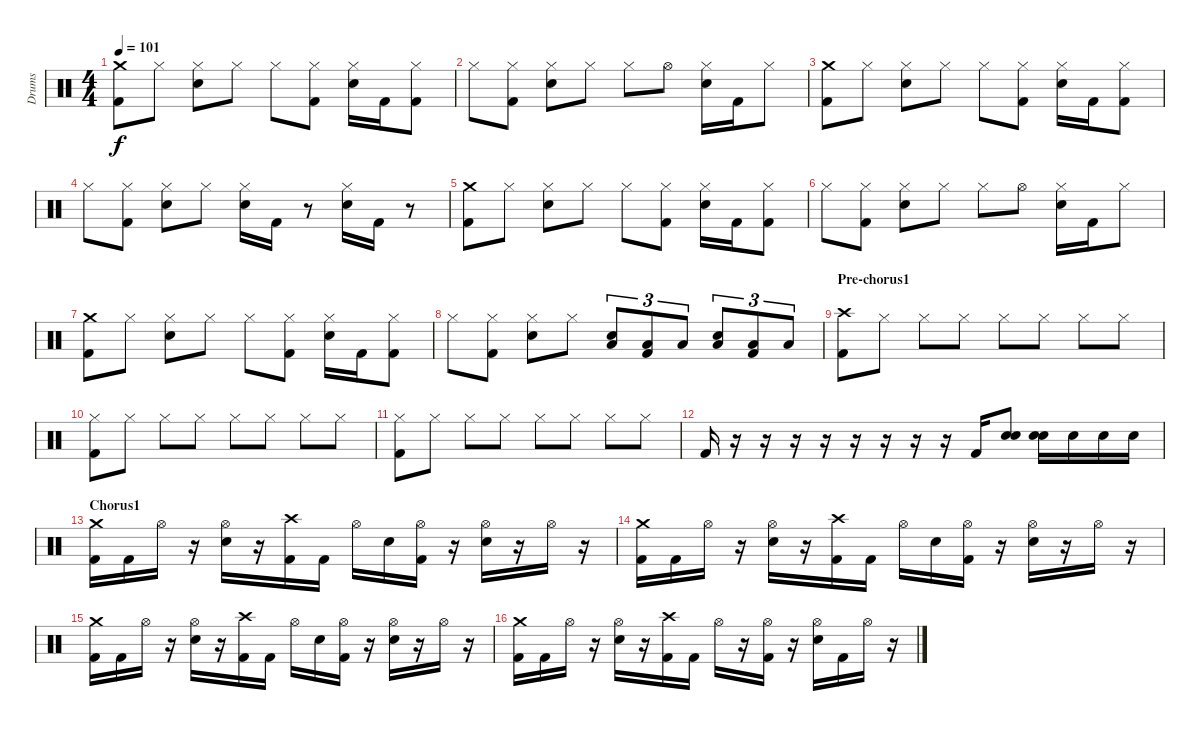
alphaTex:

\track ("Drums" "Drums") {instrument percussion}
\staff {score}
\articulation defaults
\ts (4 4)
\tempo 101
\clef neutral
\ks c
("Crash medium (hit)" "Kick (hit) 2").8{dy f} "Hi-Hat (closed)".8 ("Hi-Hat (closed)" "Electric Snare (hit)").8 "Hi-Hat (closed)".8 "Hi-Hat (closed)".8 ("Hi-Hat (closed)" "Kick (hit) 2").8 ("Hi-Hat (closed)" "Electric Snare (hit)").16 "Kick (hit) 2".16 ("Hi-Hat (closed)" "Kick (hit) 2").8 |
"Hi-Hat (closed)".8 ("Hi-Hat (closed)" "Kick (hit) 2").8 ("Hi-Hat (closed)" "Electric Snare (hit)").8 "Hi-Hat (closed)".8 "Hi-Hat (closed)".8 "Hi-Hat (open)".8 ("Hi-Hat (closed)" "Electric Snare (hit)").16 "Kick (hit) 2".16 "Hi-Hat (closed)".8 |
("Crash medium (hit)" "Kick (hit) 2").8 "Hi-Hat (closed)".8 ("Hi-Hat (closed)" "Electric Snare (hit)").8 "Hi-Hat (closed)".8 "Hi-Hat (closed)".8 ("Hi-Hat (closed)" "Kick (hit) 2").8 ("Hi-Hat (closed)" "Electric Snare (hit)").16 "Kick (hit) 2".16 ("Hi-Hat (closed)" "Kick (hit) 2").8 |
"Hi-Hat (closed)".8 ("Hi-Hat (closed)" "Kick (hit) 2").8 ("Hi-Hat (closed)" "Electric Snare (hit)").8 "Hi-Hat (closed)".8 ("Hi-Hat (closed)" "Electric Snare (hit)").16 "Kick (hit) 2".16 r.8 ("Hi-Hat (closed)" "Electric Snare (hit)").16 "Kick (hit) 2".16 r.8 |
("Crash medium (hit)" "Kick (hit) 2").8 "Hi-Hat (closed)".8 ("Hi-Hat (closed)" "Electric Snare (hit)").8 "Hi-Hat (closed)".8 "Hi-Hat (closed)".8 ("Hi-Hat (closed)" "Kick (hit) 2").8 ("Hi-Hat (closed)" "Electric Snare (hit)").16 "Kick (hit) 2".16 ("Hi-Hat (closed)" "Kick (hit) 2").8 |
"Hi-Hat (closed)".8 ("Hi-Hat (closed)" "Kick (hit) 2").8 ("Hi-Hat (closed)" "Electric Snare (hit)").8 "Hi-Hat (closed)".8 "Hi-Hat (closed)".8 "Hi-Hat (open)".8 ("Hi-Hat (closed)" "Electric Snare (hit)").16 "Kick (hit) 2".16 "Hi-Hat (closed)".8 |
("Crash medium (hit)" "Kick (hit) 2").8 "Hi-Hat (closed)".8 ("Hi-Hat (closed)" "Electric Snare (hit)").8 "Hi-Hat (closed)".8 "Hi-Hat (closed)".8 ("Hi-Hat (closed)" "Kick (hit) 2").8 ("Hi-Hat (closed)" "Electric Snare (hit)").16 "Kick (hit) 2".16 ("Hi-Hat (closed)" "Kick (hit) 2").8 |
"Hi-Hat (closed)".8 ("Hi-Hat (closed)" "Kick (hit) 2").8 ("Hi-Hat (closed)" "Electric Snare (hit)").8 "Hi-Hat (closed)".8 ("Low Tom (hit)" "Electric Snare (hit)").8{tu (3 2)} ("Low Tom (hit)" "Kick (hit) 2").8{tu (3 2)} "Low Tom (hit)".8{tu (3 2)} ("Low Tom (hit)" "Electric Snare (hit)").8{tu (3 2)} ("Low Tom (hit)" "Kick (hit) 2").8{tu (3 2)} "Low Tom (hit)".8{tu (3 2)} |
\section ("" "Pre-chorus1")
("Crash high (hit)" "Kick (hit) 2").8 "Hi-Hat (closed)".8 "Hi-Hat (closed)".8 "Hi-Hat (closed)".8 "Hi-Hat (closed)".8 "Hi-Hat (closed)".8 "Hi-Hat (closed)".8 "Hi-Hat (closed)".8 |
("Hi-Hat (closed)" "Kick (hit) 2").8 "Hi-Hat (closed)".8 "Hi-Hat (closed)".8 "Hi-Hat (closed)".8 "Hi-Hat (closed)".8 "Hi-Hat (closed)".8 "Hi-Hat (closed)".8 "Hi-Hat (closed)".8 |
("Hi-Hat (closed)" "Kick (hit) 2").8 "Hi-Hat (closed)".8 "Hi-Hat (closed)".8 "Hi-Hat (closed)".8 "Hi-Hat (closed)".8 "Hi-Hat (closed)".8 "Hi-Hat (closed)".8 "Hi-Hat (closed)".8 |
"Kick (hit) 2".16 r.16 r.16 r.16 r.16 r.16 r.16 r.16 r.16 "Kick (hit) 2".16 ("Electric Snare (hit)" "Electric Snare (hit)").8 ("Electric Snare (hit)" "Electric Snare (hit)").16 "Electric Snare (hit)".16 "Electric Snare (hit)".16 "Electric Snare (hit)".16 |
\section ("" "Chorus1")
("Crash medium (hit)" "Kick (hit) 2").16 "Kick (hit) 2".16 "Hi-Hat (open)".16 r.16 ("Hi-Hat (open)" "Electric Snare (hit)").16 r.16 ("Crash high (hit)" "Kick (hit) 2").16 "Kick (hit) 2".16 "Hi-Hat (open)".16 "Electric Snare (hit)".16 ("Hi-Hat (open)" "Kick (hit) 2").16 r.16 ("Hi-Hat (open)" "Electric Snare (hit)").16 r.16 "Hi-Hat (open)".16 r.16 |
("Crash medium (hit)" "Kick (hit) 2").16 "Kick (hit) 2".16 "Hi-Hat (open)".16 r.16 ("Hi-Hat (open)" "Electric Snare (hit)").16 r.16 ("Crash high (hit)" "Kick (hit) 2").16 "Kick (hit) 2".16 "Hi-Hat (open)".16 "Electric Snare (hit)".16 ("Hi-Hat (open)" "Kick (hit) 2").16 r.16 ("Hi-Hat (open)" "Electric Snare (hit)").16 r.16 "Hi-Hat (open)".16 r.16 |
("Crash medium (hit)" "Kick (hit) 2").16 "Kick (hit) 2".16 "Hi-Hat (open)".16 r.16 ("Hi-Hat (open)" "Electric Snare (hit)").16 r.16 ("Crash high (hit)" "Kick (hit) 2").16 "Kick (hit) 2".16 "Hi-Hat (open)".16 "Electric Snare (hit)".16 ("Hi-Hat (open)" "Kick (hit) 2").16 r.16 ("Hi-Hat (open)" "Electric Snare (hit)").16 r.16 "Hi-Hat (open)".16 r.16 |
("Crash medium (hit)" "Kick (hit) 2").16 "Kick (hit) 2".16 "Hi-Hat (open)".16 r.16 ("Hi-Hat (open)" "Electric Snare (hit)").16 r.16 ("Crash high (hit)" "Kick (hit) 2").16 "Kick (hit) 2".16 "Hi-Hat (open)".16 r.16 ("Hi-Hat (open)" "Kick (hit) 2").16 r.16 ("Hi-Hat (open)" "Electric Snare (hit)").16 "Kick (hit) 2".16 "Hi-Hat (open)".16 r.16
